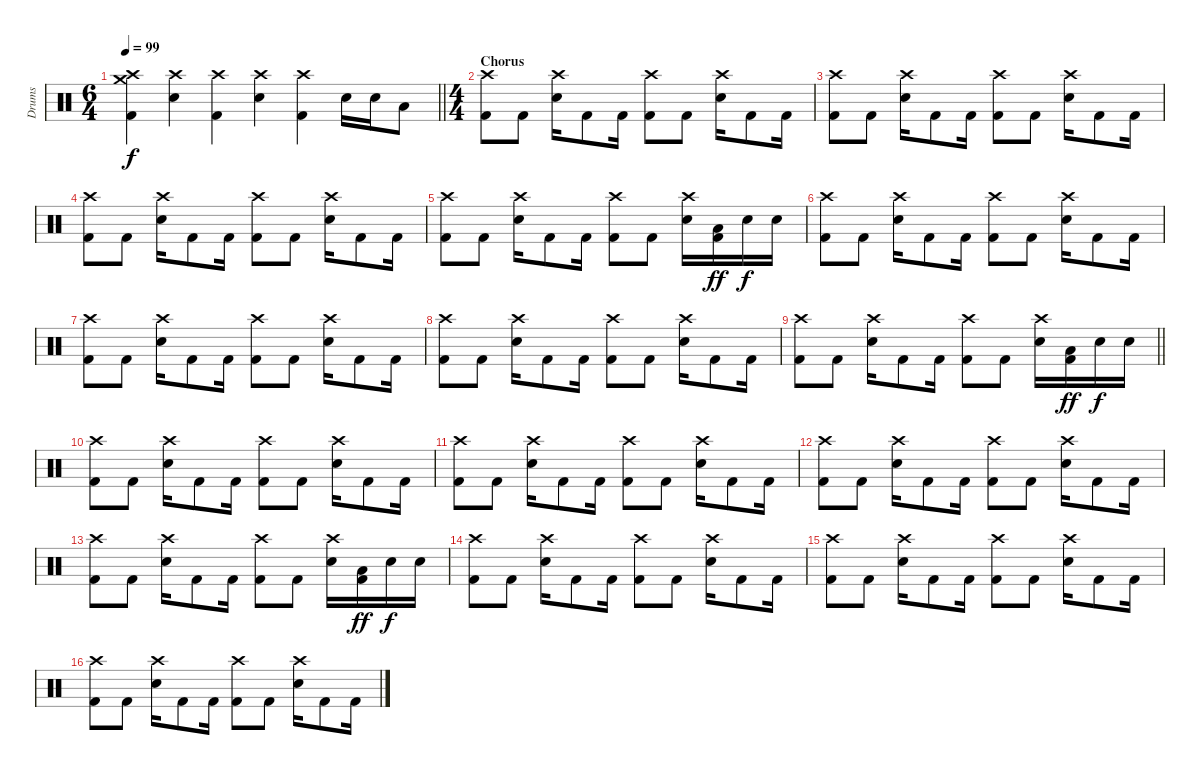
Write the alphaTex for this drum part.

\track ("Drums" "Drums") {instrument percussion}
\staff {score}
\articulation defaults
\ts (6 4)
\tempo 99
\clef neutral
\barLineRight lightlight
\ks c
("Crash medium (hit)" "Crash high (hit)" "Kick (hit) 2").4{dy f} ("Crash high (hit)" "Electric Snare (hit)").4 ("Crash high (hit)" "Kick (hit) 2").4 ("Crash high (hit)" "Electric Snare (hit)").4 ("Crash high (hit)" "Kick (hit) 2").4 "Electric Snare (hit)".16 "Electric Snare (hit)".16 "Low Floor Tom (hit)".8 |
\ts (4 4)
\section ("" "Chorus")
("Crash high (hit)" "Kick (hit) 2").8 "Kick (hit) 2".8 ("Crash high (hit)" "Electric Snare (hit)").16 "Kick (hit) 2".8 "Kick (hit) 2".16 ("Crash high (hit)" "Kick (hit) 2").8 "Kick (hit) 2".8 ("Crash high (hit)" "Electric Snare (hit)").16 "Kick (hit) 2".8 "Kick (hit) 2".16 |
("Crash high (hit)" "Kick (hit) 2").8 "Kick (hit) 2".8 ("Crash high (hit)" "Electric Snare (hit)").16 "Kick (hit) 2".8 "Kick (hit) 2".16 ("Crash high (hit)" "Kick (hit) 2").8 "Kick (hit) 2".8 ("Crash high (hit)" "Electric Snare (hit)").16 "Kick (hit) 2".8 "Kick (hit) 2".16 |
("Crash high (hit)" "Kick (hit) 2").8 "Kick (hit) 2".8 ("Crash high (hit)" "Electric Snare (hit)").16 "Kick (hit) 2".8 "Kick (hit) 2".16 ("Crash high (hit)" "Kick (hit) 2").8 "Kick (hit) 2".8 ("Crash high (hit)" "Electric Snare (hit)").16 "Kick (hit) 2".8 "Kick (hit) 2".16 |
("Crash high (hit)" "Kick (hit) 2").8 "Kick (hit) 2".8 ("Crash high (hit)" "Electric Snare (hit)").16 "Kick (hit) 2".8 "Kick (hit) 2".16 ("Crash high (hit)" "Kick (hit) 2").8 "Kick (hit) 2".8 ("Crash high (hit)" "Electric Snare (hit)").16 ("Low Floor Tom (hit)" "Kick (hit) 2").16{dy ff} "Electric Snare (hit)".16{dy f} "Electric Snare (hit)".16 |
("Crash high (hit)" "Kick (hit) 2").8 "Kick (hit) 2".8 ("Crash high (hit)" "Electric Snare (hit)").16 "Kick (hit) 2".8 "Kick (hit) 2".16 ("Crash high (hit)" "Kick (hit) 2").8 "Kick (hit) 2".8 ("Crash high (hit)" "Electric Snare (hit)").16 "Kick (hit) 2".8 "Kick (hit) 2".16 |
("Crash high (hit)" "Kick (hit) 2").8 "Kick (hit) 2".8 ("Crash high (hit)" "Electric Snare (hit)").16 "Kick (hit) 2".8 "Kick (hit) 2".16 ("Crash high (hit)" "Kick (hit) 2").8 "Kick (hit) 2".8 ("Crash high (hit)" "Electric Snare (hit)").16 "Kick (hit) 2".8 "Kick (hit) 2".16 |
("Crash high (hit)" "Kick (hit) 2").8 "Kick (hit) 2".8 ("Crash high (hit)" "Electric Snare (hit)").16 "Kick (hit) 2".8 "Kick (hit) 2".16 ("Crash high (hit)" "Kick (hit) 2").8 "Kick (hit) 2".8 ("Crash high (hit)" "Electric Snare (hit)").16 "Kick (hit) 2".8 "Kick (hit) 2".16 |
\barLineRight lightlight
("Crash high (hit)" "Kick (hit) 2").8 "Kick (hit) 2".8 ("Crash high (hit)" "Electric Snare (hit)").16 "Kick (hit) 2".8 "Kick (hit) 2".16 ("Crash high (hit)" "Kick (hit) 2").8 "Kick (hit) 2".8 ("Crash high (hit)" "Electric Snare (hit)").16 ("Low Floor Tom (hit)" "Kick (hit) 2").16{dy ff} "Electric Snare (hit)".16{dy f} "Electric Snare (hit)".16 |
("Crash high (hit)" "Kick (hit) 2").8 "Kick (hit) 2".8 ("Crash high (hit)" "Electric Snare (hit)").16 "Kick (hit) 2".8 "Kick (hit) 2".16 ("Crash high (hit)" "Kick (hit) 2").8 "Kick (hit) 2".8 ("Crash high (hit)" "Electric Snare (hit)").16 "Kick (hit) 2".8 "Kick (hit) 2".16 |
("Crash high (hit)" "Kick (hit) 2").8 "Kick (hit) 2".8 ("Crash high (hit)" "Electric Snare (hit)").16 "Kick (hit) 2".8 "Kick (hit) 2".16 ("Crash high (hit)" "Kick (hit) 2").8 "Kick (hit) 2".8 ("Crash high (hit)" "Electric Snare (hit)").16 "Kick (hit) 2".8 "Kick (hit) 2".16 |
("Crash high (hit)" "Kick (hit) 2").8 "Kick (hit) 2".8 ("Crash high (hit)" "Electric Snare (hit)").16 "Kick (hit) 2".8 "Kick (hit) 2".16 ("Crash high (hit)" "Kick (hit) 2").8 "Kick (hit) 2".8 ("Crash high (hit)" "Electric Snare (hit)").16 "Kick (hit) 2".8 "Kick (hit) 2".16 |
("Crash high (hit)" "Kick (hit) 2").8 "Kick (hit) 2".8 ("Crash high (hit)" "Electric Snare (hit)").16 "Kick (hit) 2".8 "Kick (hit) 2".16 ("Crash high (hit)" "Kick (hit) 2").8 "Kick (hit) 2".8 ("Crash high (hit)" "Electric Snare (hit)").16 ("Low Floor Tom (hit)" "Kick (hit) 2").16{dy ff} "Electric Snare (hit)".16{dy f} "Electric Snare (hit)".16 |
("Crash high (hit)" "Kick (hit) 2").8 "Kick (hit) 2".8 ("Crash high (hit)" "Electric Snare (hit)").16 "Kick (hit) 2".8 "Kick (hit) 2".16 ("Crash high (hit)" "Kick (hit) 2").8 "Kick (hit) 2".8 ("Crash high (hit)" "Electric Snare (hit)").16 "Kick (hit) 2".8 "Kick (hit) 2".16 |
("Crash high (hit)" "Kick (hit) 2").8 "Kick (hit) 2".8 ("Crash high (hit)" "Electric Snare (hit)").16 "Kick (hit) 2".8 "Kick (hit) 2".16 ("Crash high (hit)" "Kick (hit) 2").8 "Kick (hit) 2".8 ("Crash high (hit)" "Electric Snare (hit)").16 "Kick (hit) 2".8 "Kick (hit) 2".16 |
("Crash high (hit)" "Kick (hit) 2").8 "Kick (hit) 2".8 ("Crash high (hit)" "Electric Snare (hit)").16 "Kick (hit) 2".8 "Kick (hit) 2".16 ("Crash high (hit)" "Kick (hit) 2").8 "Kick (hit) 2".8 ("Crash high (hit)" "Electric Snare (hit)").16 "Kick (hit) 2".8 "Kick (hit) 2".16
